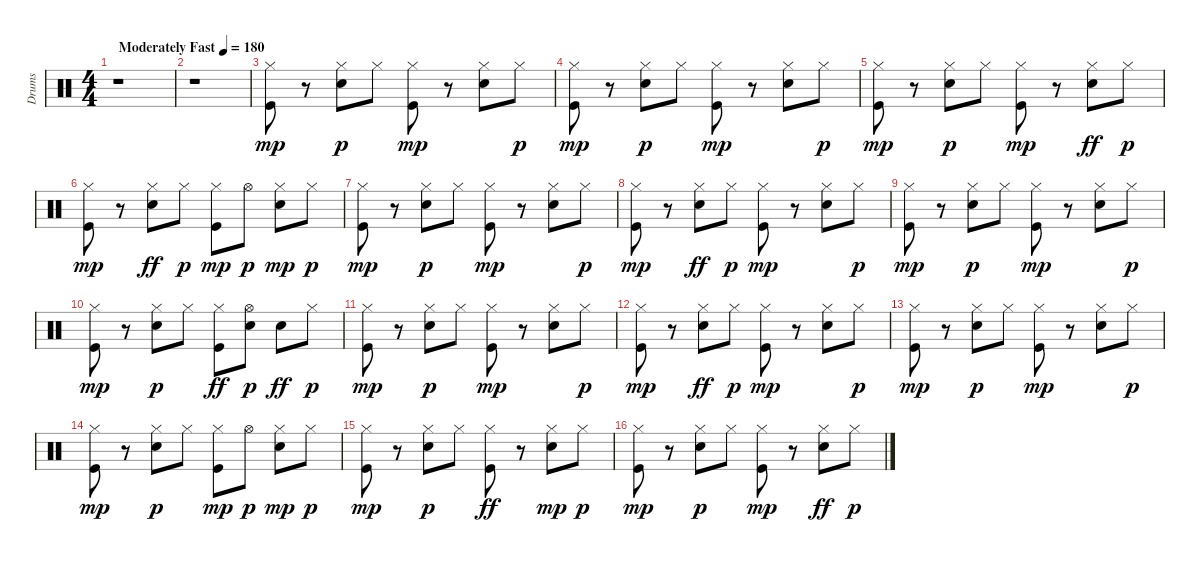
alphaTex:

\track ("Drums" "Drums") {instrument percussion}
\staff {score}
\articulation defaults
\ts (4 4)
\tempo (180 "Moderately Fast")
\clef neutral
\ks c
r.1{dy mp} |
r.1 |
("Kick (hit)" "Hi-Hat (closed)").8 r.8 ("Snare (hit) 2" "Hi-Hat (closed)").8{dy p} "Hi-Hat (closed)".8 ("Kick (hit)" "Hi-Hat (closed)").8{dy mp} r.8 ("Snare (hit) 2" "Hi-Hat (closed)").8 "Hi-Hat (closed)".8{dy p} |
("Kick (hit)" "Hi-Hat (closed)").8{dy mp} r.8 ("Snare (hit) 2" "Hi-Hat (closed)").8{dy p} "Hi-Hat (closed)".8 ("Kick (hit)" "Hi-Hat (closed)").8{dy mp} r.8 ("Snare (hit) 2" "Hi-Hat (closed)").8 "Hi-Hat (closed)".8{dy p} |
("Kick (hit)" "Hi-Hat (closed)").8{dy mp} r.8 ("Snare (hit) 2" "Hi-Hat (closed)").8{dy p} "Hi-Hat (closed)".8 ("Kick (hit)" "Hi-Hat (closed)").8{dy mp} r.8 ("Hi-Hat (closed)" "Snare (hit) 2").8{dy ff} "Hi-Hat (closed)".8{dy p} |
("Kick (hit)" "Hi-Hat (closed)").8{dy mp} r.8 ("Hi-Hat (closed)" "Snare (hit) 2").8{dy ff} "Hi-Hat (closed)".8{dy p} ("Kick (hit)" "Hi-Hat (closed)").8{dy mp} "Hi-Hat (open)".8{dy p} ("Snare (hit) 2" "Hi-Hat (closed)").8{dy mp} "Hi-Hat (closed)".8{dy p} |
("Kick (hit)" "Hi-Hat (closed)").8{dy mp} r.8 ("Snare (hit) 2" "Hi-Hat (closed)").8{dy p} "Hi-Hat (closed)".8 ("Kick (hit)" "Hi-Hat (closed)").8{dy mp} r.8 ("Snare (hit) 2" "Hi-Hat (closed)").8 "Hi-Hat (closed)".8{dy p} |
("Kick (hit)" "Hi-Hat (closed)").8{dy mp} r.8 ("Hi-Hat (closed)" "Snare (hit) 2").8{dy ff} "Hi-Hat (closed)".8{dy p} ("Kick (hit)" "Hi-Hat (closed)").8{dy mp} r.8 ("Snare (hit) 2" "Hi-Hat (closed)").8 "Hi-Hat (closed)".8{dy p} |
("Kick (hit)" "Hi-Hat (closed)").8{dy mp} r.8 ("Snare (hit) 2" "Hi-Hat (closed)").8{dy p} "Hi-Hat (closed)".8 ("Kick (hit)" "Hi-Hat (closed)").8{dy mp} r.8 ("Snare (hit) 2" "Hi-Hat (closed)").8 "Hi-Hat (closed)".8{dy p} |
("Kick (hit)" "Hi-Hat (closed)").8{dy mp} r.8 ("Snare (hit) 2" "Hi-Hat (closed)").8{dy p} "Hi-Hat (closed)".8 ("Hi-Hat (closed)" "Kick (hit)").8{dy ff} ("Hi-Hat (open)" "Snare (hit) 2").8{dy p} "Snare (hit) 2".8{dy ff} "Hi-Hat (closed)".8{dy p} |
("Kick (hit)" "Hi-Hat (closed)").8{dy mp} r.8 ("Snare (hit) 2" "Hi-Hat (closed)").8{dy p} "Hi-Hat (closed)".8 ("Kick (hit)" "Hi-Hat (closed)").8{dy mp} r.8 ("Snare (hit) 2" "Hi-Hat (closed)").8 "Hi-Hat (closed)".8{dy p} |
("Kick (hit)" "Hi-Hat (closed)").8{dy mp} r.8 ("Hi-Hat (closed)" "Snare (hit) 2").8{dy ff} "Hi-Hat (closed)".8{dy p} ("Kick (hit)" "Hi-Hat (closed)").8{dy mp} r.8 ("Snare (hit) 2" "Hi-Hat (closed)").8 "Hi-Hat (closed)".8{dy p} |
("Kick (hit)" "Hi-Hat (closed)").8{dy mp} r.8 ("Snare (hit) 2" "Hi-Hat (closed)").8{dy p} "Hi-Hat (closed)".8 ("Kick (hit)" "Hi-Hat (closed)").8{dy mp} r.8 ("Snare (hit) 2" "Hi-Hat (closed)").8 "Hi-Hat (closed)".8{dy p} |
("Kick (hit)" "Hi-Hat (closed)").8{dy mp} r.8 ("Snare (hit) 2" "Hi-Hat (closed)").8{dy p} "Hi-Hat (closed)".8 ("Kick (hit)" "Hi-Hat (closed)").8{dy mp} "Hi-Hat (open)".8{dy p} ("Snare (hit) 2" "Hi-Hat (closed)").8{dy mp} "Hi-Hat (closed)".8{dy p} |
("Kick (hit)" "Hi-Hat (closed)").8{dy mp} r.8 ("Snare (hit) 2" "Hi-Hat (closed)").8{dy p} "Hi-Hat (closed)".8 ("Hi-Hat (closed)" "Kick (hit)").8{dy ff} r.8 ("Snare (hit) 2" "Hi-Hat (closed)").8{dy mp} "Hi-Hat (closed)".8{dy p} |
("Kick (hit)" "Hi-Hat (closed)").8{dy mp} r.8 ("Snare (hit) 2" "Hi-Hat (closed)").8{dy p} "Hi-Hat (closed)".8 ("Kick (hit)" "Hi-Hat (closed)").8{dy mp} r.8 ("Hi-Hat (closed)" "Snare (hit) 2").8{dy ff} "Hi-Hat (closed)".8{dy p}
